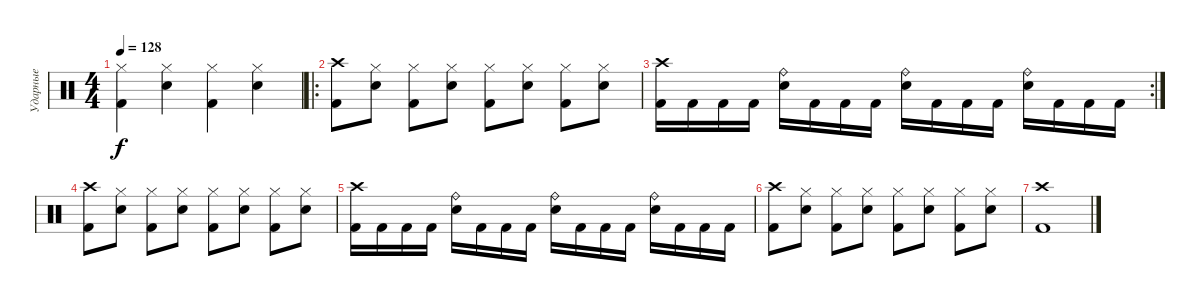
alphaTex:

\track ("Ударные" "Ударные") {instrument percussion}
\staff {score}
\articulation defaults
\ts (4 4)
\tempo 128
\clef neutral
\ks c
("Hi-Hat (closed)" "Kick (hit) 2").4{dy f} ("Hi-Hat (closed)" "Electric Snare (hit)").4 ("Hi-Hat (closed)" "Kick (hit) 2").4 ("Hi-Hat (closed)" "Electric Snare (hit)").4 |
\ro
("Kick (hit) 2" "Crash high (hit)").8 ("Snare (hit) 2" "Hi-Hat (closed)").8 ("Kick (hit) 2" "Hi-Hat (closed)").8 ("Snare (hit) 2" "Hi-Hat (closed)").8 ("Kick (hit) 2" "Hi-Hat (closed)").8 ("Snare (hit) 2" "Hi-Hat (closed)").8 ("Kick (hit) 2" "Hi-Hat (closed)").8 ("Snare (hit) 2" "Hi-Hat (closed)").8 |
\rc 2
("Kick (hit) 2" "Crash high (hit)").16 "Kick (hit) 2".16 "Kick (hit) 2".16 "Kick (hit) 2".16 ("Electric Snare (hit)" "Ride (bell)").16 "Kick (hit) 2".16 "Kick (hit) 2".16 "Kick (hit) 2".16 ("Electric Snare (hit)" "Ride (bell)").16 "Kick (hit) 2".16 "Kick (hit) 2".16 "Kick (hit) 2".16 ("Electric Snare (hit)" "Ride (bell)").16 "Kick (hit) 2".16 "Kick (hit) 2".16 "Kick (hit) 2".16 |
("Kick (hit) 2" "Crash high (hit)").8 ("Snare (hit) 2" "Hi-Hat (closed)").8 ("Kick (hit) 2" "Hi-Hat (closed)").8 ("Snare (hit) 2" "Hi-Hat (closed)").8 ("Kick (hit) 2" "Hi-Hat (closed)").8 ("Snare (hit) 2" "Hi-Hat (closed)").8 ("Kick (hit) 2" "Hi-Hat (closed)").8 ("Snare (hit) 2" "Hi-Hat (closed)").8 |
("Kick (hit) 2" "Crash high (hit)").16 "Kick (hit) 2".16 "Kick (hit) 2".16 "Kick (hit) 2".16 ("Electric Snare (hit)" "Ride (bell)").16 "Kick (hit) 2".16 "Kick (hit) 2".16 "Kick (hit) 2".16 ("Electric Snare (hit)" "Ride (bell)").16 "Kick (hit) 2".16 "Kick (hit) 2".16 "Kick (hit) 2".16 ("Electric Snare (hit)" "Ride (bell)").16 "Kick (hit) 2".16 "Kick (hit) 2".16 "Kick (hit) 2".16 |
("Kick (hit) 2" "Crash high (hit)").8 ("Snare (hit) 2" "Hi-Hat (closed)").8 ("Kick (hit) 2" "Hi-Hat (closed)").8 ("Snare (hit) 2" "Hi-Hat (closed)").8 ("Kick (hit) 2" "Hi-Hat (closed)").8 ("Snare (hit) 2" "Hi-Hat (closed)").8 ("Kick (hit) 2" "Hi-Hat (closed)").8 ("Snare (hit) 2" "Hi-Hat (closed)").8 |
("Kick (hit) 2" "Crash high (hit)").1
